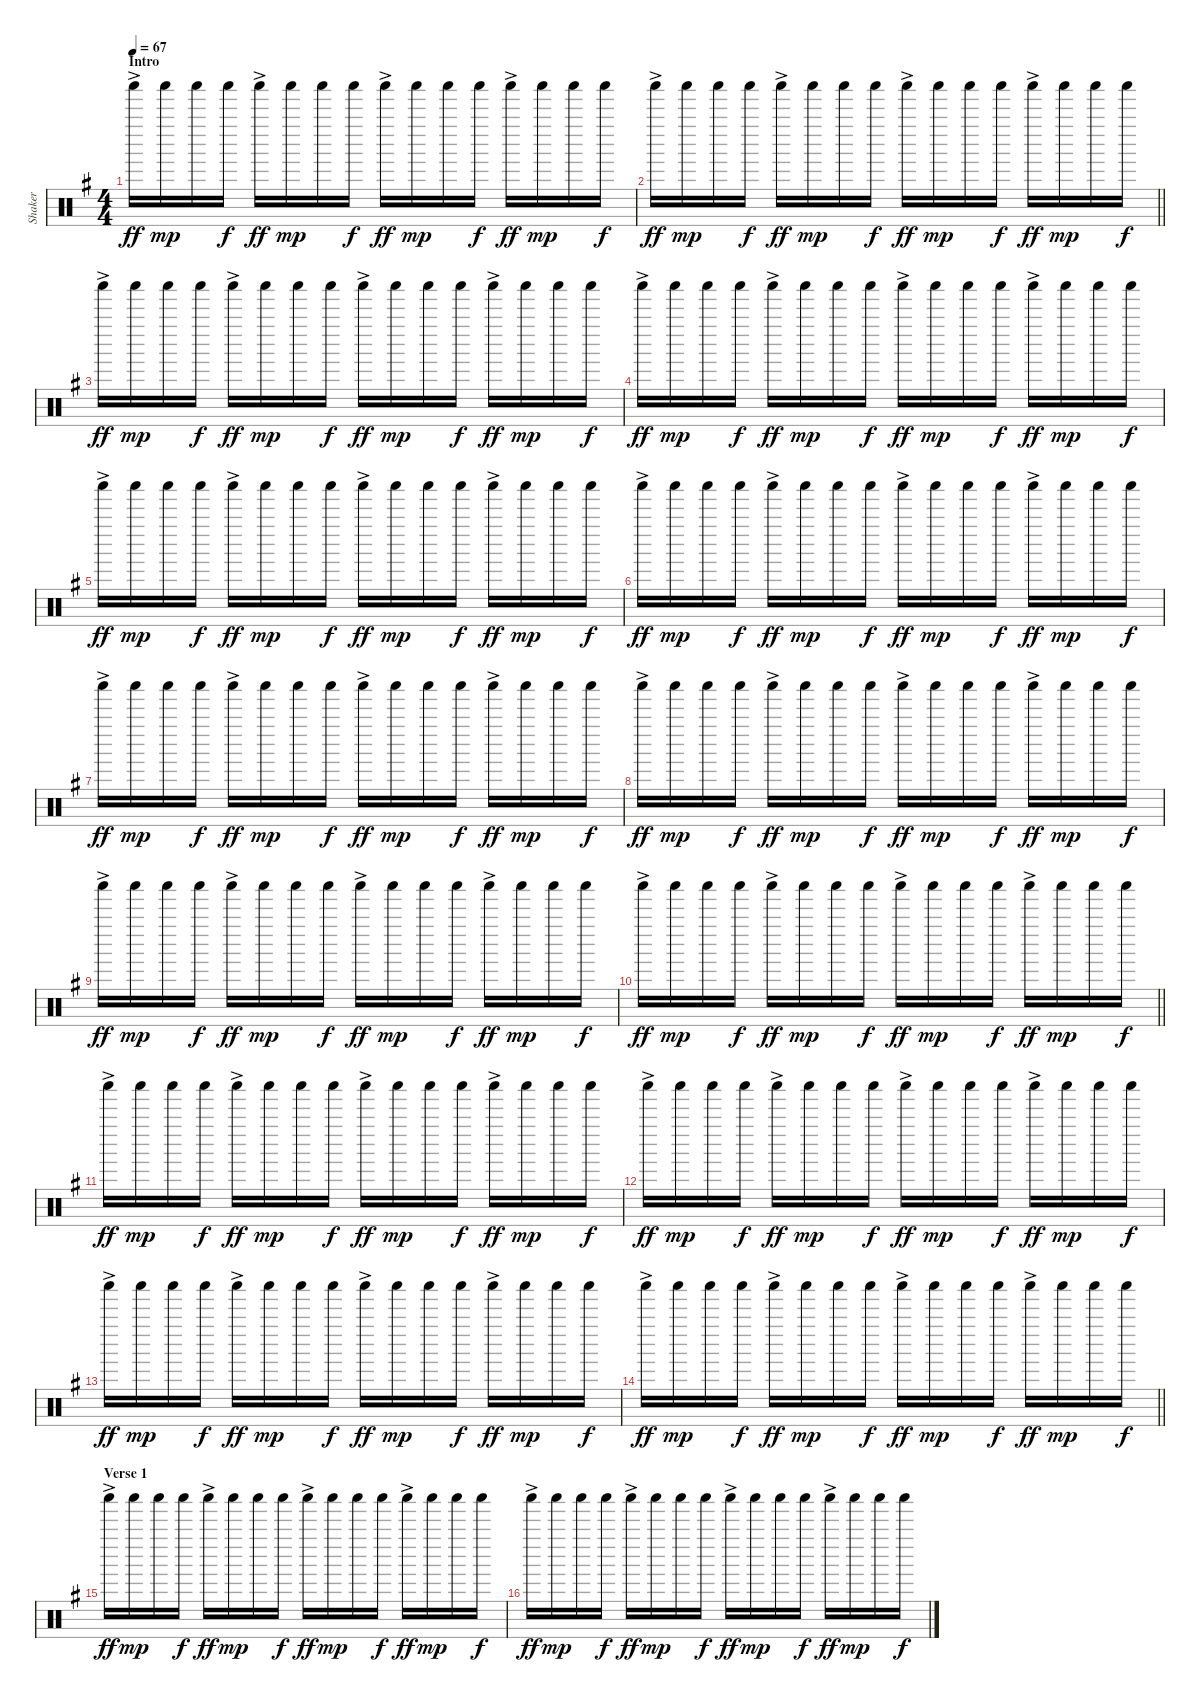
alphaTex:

\track ("Shaker" "Shaker") {instrument percussion}
\staff {score}
\articulation defaults
\ts (4 4)
\section ("" "Intro")
\tempo 67
\clef neutral
\ks g "Shaker (hit)"{ac}.16{dy ff} "Shaker (hit)".16{dy mp} "Shaker (hit)".16 "Shaker (hit)".16{dy f} "Shaker (hit)"{ac}.16{dy ff} "Shaker (hit)".16{dy mp} "Shaker (hit)".16 "Shaker (hit)".16{dy f} "Shaker (hit)"{ac}.16{dy ff} "Shaker (hit)".16{dy mp} "Shaker (hit)".16 "Shaker (hit)".16{dy f} "Shaker (hit)"{ac}.16{dy ff} "Shaker (hit)".16{dy mp} "Shaker (hit)".16 "Shaker (hit)".16{dy f}
|
\barLineRight lightlight "Shaker (hit)"{ac}.16{dy ff} "Shaker (hit)".16{dy mp} "Shaker (hit)".16 "Shaker (hit)".16{dy f} "Shaker (hit)"{ac}.16{dy ff} "Shaker (hit)".16{dy mp} "Shaker (hit)".16 "Shaker (hit)".16{dy f} "Shaker (hit)"{ac}.16{dy ff} "Shaker (hit)".16{dy mp} "Shaker (hit)".16 "Shaker (hit)".16{dy f} "Shaker (hit)"{ac}.16{dy ff} "Shaker (hit)".16{dy mp} "Shaker (hit)".16 "Shaker (hit)".16{dy f}
|
"Shaker (hit)"{ac}.16{dy ff} "Shaker (hit)".16{dy mp} "Shaker (hit)".16 "Shaker (hit)".16{dy f} "Shaker (hit)"{ac}.16{dy ff} "Shaker (hit)".16{dy mp} "Shaker (hit)".16 "Shaker (hit)".16{dy f} "Shaker (hit)"{ac}.16{dy ff} "Shaker (hit)".16{dy mp} "Shaker (hit)".16 "Shaker (hit)".16{dy f} "Shaker (hit)"{ac}.16{dy ff} "Shaker (hit)".16{dy mp} "Shaker (hit)".16 "Shaker (hit)".16{dy f} |
"Shaker (hit)"{ac}.16{dy ff} "Shaker (hit)".16{dy mp} "Shaker (hit)".16 "Shaker (hit)".16{dy f} "Shaker (hit)"{ac}.16{dy ff} "Shaker (hit)".16{dy mp} "Shaker (hit)".16 "Shaker (hit)".16{dy f} "Shaker (hit)"{ac}.16{dy ff} "Shaker (hit)".16{dy mp} "Shaker (hit)".16 "Shaker (hit)".16{dy f} "Shaker (hit)"{ac}.16{dy ff} "Shaker (hit)".16{dy mp} "Shaker (hit)".16 "Shaker (hit)".16{dy f} |
"Shaker (hit)"{ac}.16{dy ff} "Shaker (hit)".16{dy mp} "Shaker (hit)".16 "Shaker (hit)".16{dy f} "Shaker (hit)"{ac}.16{dy ff} "Shaker (hit)".16{dy mp} "Shaker (hit)".16 "Shaker (hit)".16{dy f} "Shaker (hit)"{ac}.16{dy ff} "Shaker (hit)".16{dy mp} "Shaker (hit)".16 "Shaker (hit)".16{dy f} "Shaker (hit)"{ac}.16{dy ff} "Shaker (hit)".16{dy mp} "Shaker (hit)".16 "Shaker (hit)".16{dy f} |
"Shaker (hit)"{ac}.16{dy ff} "Shaker (hit)".16{dy mp} "Shaker (hit)".16 "Shaker (hit)".16{dy f} "Shaker (hit)"{ac}.16{dy ff} "Shaker (hit)".16{dy mp} "Shaker (hit)".16 "Shaker (hit)".16{dy f} "Shaker (hit)"{ac}.16{dy ff} "Shaker (hit)".16{dy mp} "Shaker (hit)".16 "Shaker (hit)".16{dy f} "Shaker (hit)"{ac}.16{dy ff} "Shaker (hit)".16{dy mp} "Shaker (hit)".16 "Shaker (hit)".16{dy f} |
"Shaker (hit)"{ac}.16{dy ff} "Shaker (hit)".16{dy mp} "Shaker (hit)".16 "Shaker (hit)".16{dy f} "Shaker (hit)"{ac}.16{dy ff} "Shaker (hit)".16{dy mp} "Shaker (hit)".16 "Shaker (hit)".16{dy f} "Shaker (hit)"{ac}.16{dy ff} "Shaker (hit)".16{dy mp} "Shaker (hit)".16 "Shaker (hit)".16{dy f} "Shaker (hit)"{ac}.16{dy ff} "Shaker (hit)".16{dy mp} "Shaker (hit)".16 "Shaker (hit)".16{dy f} |
"Shaker (hit)"{ac}.16{dy ff} "Shaker (hit)".16{dy mp} "Shaker (hit)".16 "Shaker (hit)".16{dy f} "Shaker (hit)"{ac}.16{dy ff} "Shaker (hit)".16{dy mp} "Shaker (hit)".16 "Shaker (hit)".16{dy f} "Shaker (hit)"{ac}.16{dy ff} "Shaker (hit)".16{dy mp} "Shaker (hit)".16 "Shaker (hit)".16{dy f} "Shaker (hit)"{ac}.16{dy ff} "Shaker (hit)".16{dy mp} "Shaker (hit)".16 "Shaker (hit)".16{dy f} |
"Shaker (hit)"{ac}.16{dy ff} "Shaker (hit)".16{dy mp} "Shaker (hit)".16 "Shaker (hit)".16{dy f} "Shaker (hit)"{ac}.16{dy ff} "Shaker (hit)".16{dy mp} "Shaker (hit)".16 "Shaker (hit)".16{dy f} "Shaker (hit)"{ac}.16{dy ff} "Shaker (hit)".16{dy mp} "Shaker (hit)".16 "Shaker (hit)".16{dy f} "Shaker (hit)"{ac}.16{dy ff} "Shaker (hit)".16{dy mp} "Shaker (hit)".16 "Shaker (hit)".16{dy f} |
\barLineRight lightlight "Shaker (hit)"{ac}.16{dy ff} "Shaker (hit)".16{dy mp} "Shaker (hit)".16 "Shaker (hit)".16{dy f} "Shaker (hit)"{ac}.16{dy ff} "Shaker (hit)".16{dy mp} "Shaker (hit)".16 "Shaker (hit)".16{dy f} "Shaker (hit)"{ac}.16{dy ff} "Shaker (hit)".16{dy mp} "Shaker (hit)".16 "Shaker (hit)".16{dy f} "Shaker (hit)"{ac}.16{dy ff} "Shaker (hit)".16{dy mp} "Shaker (hit)".16 "Shaker (hit)".16{dy f}
|
"Shaker (hit)"{ac}.16{dy ff} "Shaker (hit)".16{dy mp} "Shaker (hit)".16 "Shaker (hit)".16{dy f} "Shaker (hit)"{ac}.16{dy ff} "Shaker (hit)".16{dy mp} "Shaker (hit)".16 "Shaker (hit)".16{dy f} "Shaker (hit)"{ac}.16{dy ff} "Shaker (hit)".16{dy mp} "Shaker (hit)".16 "Shaker (hit)".16{dy f} "Shaker (hit)"{ac}.16{dy ff} "Shaker (hit)".16{dy mp} "Shaker (hit)".16 "Shaker (hit)".16{dy f} |
"Shaker (hit)"{ac}.16{dy ff} "Shaker (hit)".16{dy mp} "Shaker (hit)".16 "Shaker (hit)".16{dy f} "Shaker (hit)"{ac}.16{dy ff} "Shaker (hit)".16{dy mp} "Shaker (hit)".16 "Shaker (hit)".16{dy f} "Shaker (hit)"{ac}.16{dy ff} "Shaker (hit)".16{dy mp} "Shaker (hit)".16 "Shaker (hit)".16{dy f} "Shaker (hit)"{ac}.16{dy ff} "Shaker (hit)".16{dy mp} "Shaker (hit)".16 "Shaker (hit)".16{dy f} |
"Shaker (hit)"{ac}.16{dy ff} "Shaker (hit)".16{dy mp} "Shaker (hit)".16 "Shaker (hit)".16{dy f} "Shaker (hit)"{ac}.16{dy ff} "Shaker (hit)".16{dy mp} "Shaker (hit)".16 "Shaker (hit)".16{dy f} "Shaker (hit)"{ac}.16{dy ff} "Shaker (hit)".16{dy mp} "Shaker (hit)".16 "Shaker (hit)".16{dy f} "Shaker (hit)"{ac}.16{dy ff} "Shaker (hit)".16{dy mp} "Shaker (hit)".16 "Shaker (hit)".16{dy f} |
\barLineRight lightlight "Shaker (hit)"{ac}.16{dy ff} "Shaker (hit)".16{dy mp} "Shaker (hit)".16 "Shaker (hit)".16{dy f} "Shaker (hit)"{ac}.16{dy ff} "Shaker (hit)".16{dy mp} "Shaker (hit)".16 "Shaker (hit)".16{dy f} "Shaker (hit)"{ac}.16{dy ff} "Shaker (hit)".16{dy mp} "Shaker (hit)".16 "Shaker (hit)".16{dy f} "Shaker (hit)"{ac}.16{dy ff} "Shaker (hit)".16{dy mp} "Shaker (hit)".16 "Shaker (hit)".16{dy f}
|
\section ("" "Verse 1")
"Shaker (hit)"{ac}.16{dy ff} "Shaker (hit)".16{dy mp} "Shaker (hit)".16 "Shaker (hit)".16{dy f} "Shaker (hit)"{ac}.16{dy ff} "Shaker (hit)".16{dy mp} "Shaker (hit)".16 "Shaker (hit)".16{dy f} "Shaker (hit)"{ac}.16{dy ff} "Shaker (hit)".16{dy mp} "Shaker (hit)".16 "Shaker (hit)".16{dy f} "Shaker (hit)"{ac}.16{dy ff} "Shaker (hit)".16{dy mp} "Shaker (hit)".16 "Shaker (hit)".16{dy f} |
"Shaker (hit)"{ac}.16{dy ff} "Shaker (hit)".16{dy mp} "Shaker (hit)".16 "Shaker (hit)".16{dy f} "Shaker (hit)"{ac}.16{dy ff} "Shaker (hit)".16{dy mp} "Shaker (hit)".16 "Shaker (hit)".16{dy f} "Shaker (hit)"{ac}.16{dy ff} "Shaker (hit)".16{dy mp} "Shaker (hit)".16 "Shaker (hit)".16{dy f} "Shaker (hit)"{ac}.16{dy ff} "Shaker (hit)".16{dy mp} "Shaker (hit)".16 "Shaker (hit)".16{dy f}
